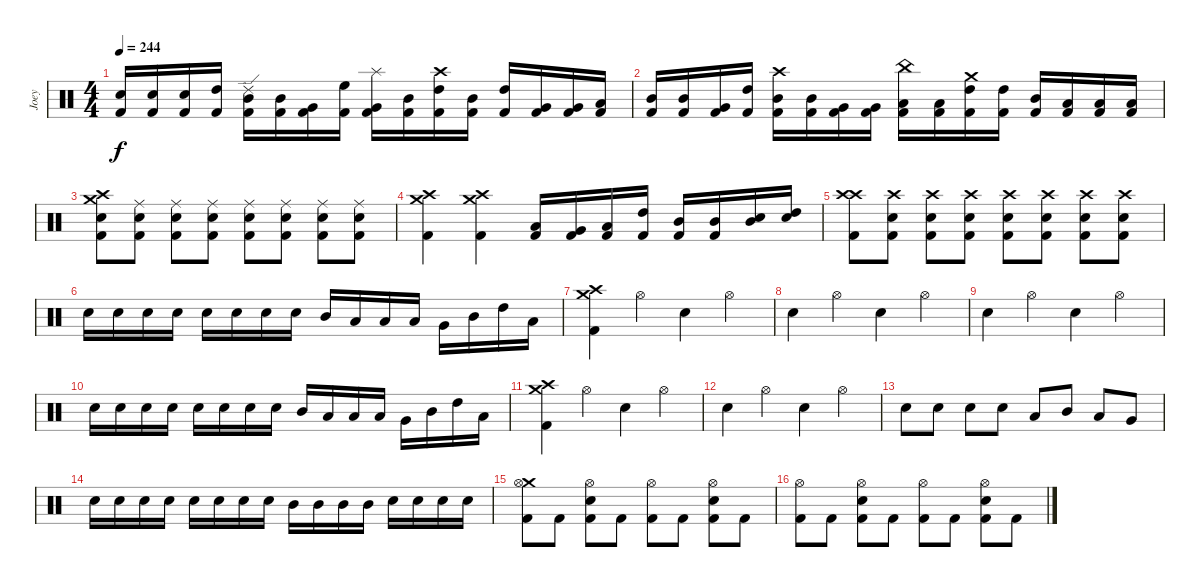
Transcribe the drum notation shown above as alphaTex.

\track ("Joey" "Joey") {instrument percussion}
\staff {score}
\articulation defaults
\ts (4 4)
\tempo 244
\clef neutral
\ks c
("Snare (hit) 2" "Kick (hit) 2").16{dy f} ("Snare (hit) 2" "Kick (hit) 2").16 ("Snare (hit) 2" "Kick (hit) 2").16 ("High Tom (hit)" "Kick (hit) 2").16 ("Ride (edge) 2" "Mid Tom (hit)" "Kick (hit) 2").16 ("Mid Tom (hit)" "Kick (hit) 2").16 ("Very Low Tom (hit)" "Kick (hit) 2").16 ("High Floor Tom (hit)" "Kick (hit) 2").16 ("Splash (hit)" "Very Low Tom (hit)" "Kick (hit) 2").16 ("Mid Tom (hit)" "Kick (hit) 2").16 ("Crash high (hit)" "High Tom (hit)" "Kick (hit) 2").16 ("Mid Tom (hit)" "Kick (hit) 2").16 ("High Tom (hit)" "Kick (hit) 2").16 ("Very Low Tom (hit)" "Kick (hit) 2").16 ("Very Low Tom (hit)" "Kick (hit) 2").16 ("Low Tom (hit)" "Kick (hit) 2").16 |
("Mid Tom (hit)" "Kick (hit) 2").16 ("Mid Tom (hit)" "Kick (hit) 2").16 ("Very Low Tom (hit)" "Kick (hit) 2").16 ("High Tom (hit)" "Kick (hit) 2").16 ("Crash high (hit)" "Mid Tom (hit)" "Kick (hit) 2").16 ("Mid Tom (hit)" "Kick (hit) 2").16 ("Very Low Tom (hit)" "Kick (hit) 2").16 ("Very Low Tom (hit)" "Kick (hit) 2").16 ("China (hit)" "Low Tom (hit)" "Kick (hit) 2").16 ("Low Tom (hit)" "Kick (hit) 2").16 ("Crash medium (hit)" "High Tom (hit)" "Kick (hit) 2").16 ("High Tom (hit)" "Kick (hit) 2").16 ("Mid Tom (hit)" "Kick (hit) 2").16 ("Low Tom (hit)" "Kick (hit) 2").16 ("Low Floor Tom (hit)" "Kick (hit) 2").16 ("Low Floor Tom (hit)" "Kick (hit) 2").16 |
("Crash high (hit)" "Crash medium (hit)" "Snare (hit) 2" "Kick (hit) 2").8 ("Ride (middle)" "Snare (hit) 2" "Kick (hit) 2").8 ("Ride (middle)" "Snare (hit) 2" "Kick (hit) 2").8 ("Ride (middle)" "Snare (hit) 2" "Kick (hit) 2").8 ("Ride (middle)" "Snare (hit) 2" "Kick (hit) 2").8 ("Ride (middle)" "Snare (hit) 2" "Kick (hit) 2").8 ("Ride (middle)" "Snare (hit) 2" "Kick (hit) 2").8 ("Ride (middle)" "Snare (hit) 2" "Kick (hit) 2").8 |
("Crash high (hit)" "Crash medium (hit)" "Kick (hit) 2").4 ("Crash high (hit)" "Crash medium (hit)" "Kick (hit) 2").4 ("Low Floor Tom (hit)" "Kick (hit) 2").16 ("Very Low Tom (hit)" "Kick (hit) 2").16 ("Low Tom (hit)" "Kick (hit) 2").16 ("High Tom (hit)" "Kick (hit) 2").16 ("Mid Tom (hit)" "Kick (hit) 2").16 ("Mid Tom (hit)" "Kick (hit) 2").16 ("Mid Tom (hit)" "Snare (hit) 2").16 ("High Tom (hit)" "Snare (hit) 2").16 |
("Crash high (hit)" "Crash high (hit)" "Kick (hit) 2").8 ("Crash high (hit)" "Snare (hit) 2" "Kick (hit) 2").8 ("Crash high (hit)" "Snare (hit) 2" "Kick (hit) 2").8 ("Crash high (hit)" "Snare (hit) 2" "Kick (hit) 2").8 ("Crash high (hit)" "Snare (hit) 2" "Kick (hit) 2").8 ("Crash high (hit)" "Snare (hit) 2" "Kick (hit) 2").8 ("Crash high (hit)" "Snare (hit) 2" "Kick (hit) 2").8 ("Crash high (hit)" "Snare (hit) 2" "Kick (hit) 2").8 |
"Snare (hit) 2".16 "Snare (hit) 2".16 "Snare (hit) 2".16 "Snare (hit) 2".16 "Snare (hit) 2".16 "Snare (hit) 2".16 "Snare (hit) 2".16 "Snare (hit) 2".16 "Mid Tom (hit)".16 "Low Tom (hit)".16 "Low Tom (hit)".16 "Low Floor Tom (hit)".16 "Very Low Tom (hit)".16 "Mid Tom (hit)".16 "High Tom (hit)".16 "Low Tom (hit)".16 |
("Crash medium (hit)" "Crash high (hit)" "Kick (hit) 2").4 "Hi-Hat (open)".4 "Snare (hit)".4 "Hi-Hat (open)".4 |
"Snare (hit)".4 "Hi-Hat (open)".4 "Snare (hit)".4 "Hi-Hat (open)".4 |
"Snare (hit)".4 "Hi-Hat (open)".4 "Snare (hit)".4 "Hi-Hat (open)".4 |
"Snare (hit) 2".16 "Snare (hit) 2".16 "Snare (hit) 2".16 "Snare (hit) 2".16 "Snare (hit) 2".16 "Snare (hit) 2".16 "Snare (hit) 2".16 "Snare (hit) 2".16 "Mid Tom (hit)".16 "Low Tom (hit)".16 "Low Tom (hit)".16 "Low Floor Tom (hit)".16 "Very Low Tom (hit)".16 "Mid Tom (hit)".16 "High Tom (hit)".16 "Low Tom (hit)".16 |
("Crash high (hit)" "Crash medium (hit)" "Kick (hit) 2").4 "Hi-Hat (open)".4 "Snare (hit)".4 "Hi-Hat (open)".4 |
"Snare (hit)".4 "Hi-Hat (open)".4 "Snare (hit)".4 "Hi-Hat (open)".4 |
"Snare (hit) 2".8 "Snare (hit) 2".8 "Snare (hit) 2".8 "Snare (hit) 2".8 "Low Floor Tom (hit)".8 "Mid Tom (hit)".8 "Low Tom (hit)".8 "Very Low Tom (hit)".8 |
"Snare (hit) 2".16 "Snare (hit) 2".16 "Snare (hit) 2".16 "Snare (hit) 2".16 "Snare (hit) 2".16 "Snare (hit) 2".16 "Snare (hit) 2".16 "Snare (hit) 2".16 "Mid Tom (hit)".16 "Mid Tom (hit)".16 "Mid Tom (hit)".16 "Mid Tom (hit)".16 "Snare (hit) 2".16 "Snare (hit) 2".16 "Snare (hit) 2".16 "Snare (hit) 2".16 |
("Crash medium (hit)" "Hi-Hat (open)" "Kick (hit) 2").8 "Kick (hit) 2".8 ("Hi-Hat (open)" "Snare (hit) 2" "Kick (hit) 2").8 "Kick (hit) 2".8 ("Hi-Hat (open)" "Kick (hit) 2").8 "Kick (hit) 2".8 ("Hi-Hat (open)" "Snare (hit) 2" "Kick (hit) 2").8 "Kick (hit) 2".8 |
("Hi-Hat (open)" "Kick (hit) 2").8 "Kick (hit) 2".8 ("Hi-Hat (open)" "Snare (hit) 2" "Kick (hit) 2").8 "Kick (hit) 2".8 ("Hi-Hat (open)" "Kick (hit) 2").8 "Kick (hit) 2".8 ("Hi-Hat (open)" "Snare (hit) 2" "Kick (hit) 2").8 "Kick (hit) 2".8
